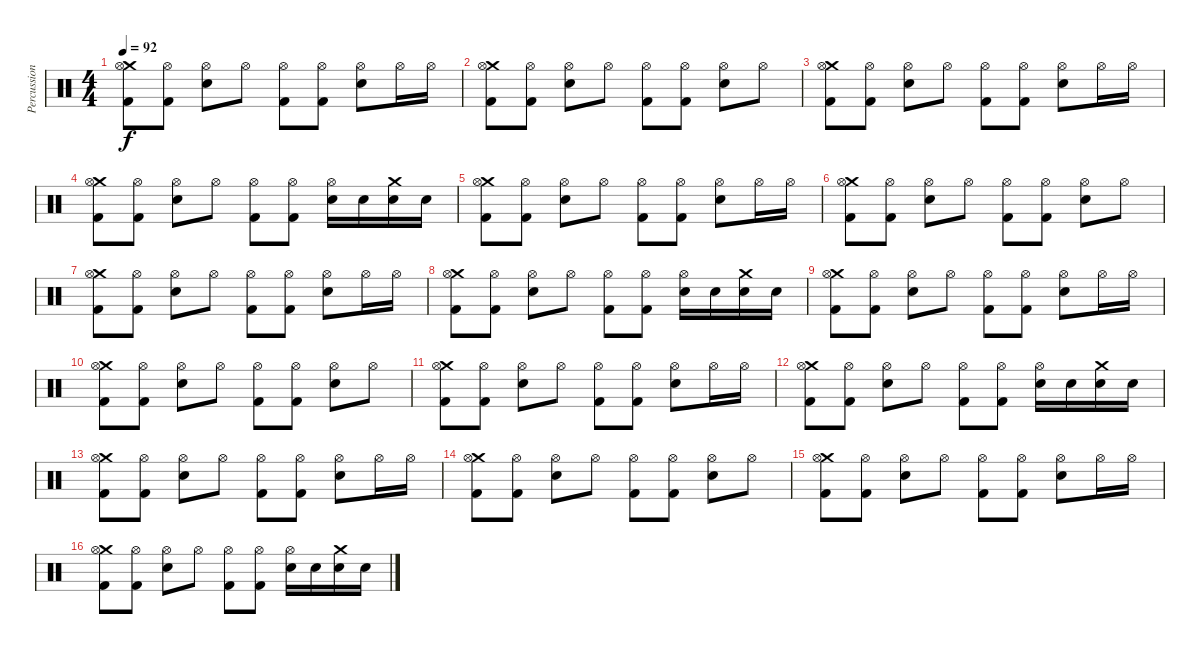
\track ("Percussion" "Percussion") {instrument percussion}
\staff {score}
\articulation defaults
\ts (4 4)
\tempo 92
\clef neutral
\ks c
("Crash medium (hit)" "Hi-Hat (open)" "Kick (hit) 2").8{dy f} ("Hi-Hat (open)" "Kick (hit) 2").8 ("Hi-Hat (open)" "Electric Snare (hit)").8 "Hi-Hat (open)".8 ("Hi-Hat (open)" "Kick (hit) 2").8 ("Hi-Hat (open)" "Kick (hit) 2").8 ("Hi-Hat (open)" "Electric Snare (hit)").8 "Hi-Hat (open)".16 "Hi-Hat (open)".16 |
("Crash medium (hit)" "Hi-Hat (open)" "Kick (hit) 2").8 ("Hi-Hat (open)" "Kick (hit) 2").8 ("Hi-Hat (open)" "Electric Snare (hit)").8 "Hi-Hat (open)".8 ("Hi-Hat (open)" "Kick (hit) 2").8 ("Hi-Hat (open)" "Kick (hit) 2").8 ("Hi-Hat (open)" "Electric Snare (hit)").8 "Hi-Hat (open)".8 |
("Crash medium (hit)" "Hi-Hat (open)" "Kick (hit) 2").8 ("Hi-Hat (open)" "Kick (hit) 2").8 ("Hi-Hat (open)" "Electric Snare (hit)").8 "Hi-Hat (open)".8 ("Hi-Hat (open)" "Kick (hit) 2").8 ("Hi-Hat (open)" "Kick (hit) 2").8 ("Hi-Hat (open)" "Electric Snare (hit)").8 "Hi-Hat (open)".16 "Hi-Hat (open)".16 |
("Crash medium (hit)" "Hi-Hat (open)" "Kick (hit) 2").8 ("Hi-Hat (open)" "Kick (hit) 2").8 ("Hi-Hat (open)" "Electric Snare (hit)").8 "Hi-Hat (open)".8 ("Hi-Hat (open)" "Kick (hit) 2").8 ("Hi-Hat (open)" "Kick (hit) 2").8 ("Hi-Hat (open)" "Electric Snare (hit)").16 "Electric Snare (hit)".16 ("Crash medium (hit)" "Electric Snare (hit)").16 "Electric Snare (hit)".16 |
("Crash medium (hit)" "Hi-Hat (open)" "Kick (hit) 2").8 ("Hi-Hat (open)" "Kick (hit) 2").8 ("Hi-Hat (open)" "Electric Snare (hit)").8 "Hi-Hat (open)".8 ("Hi-Hat (open)" "Kick (hit) 2").8 ("Hi-Hat (open)" "Kick (hit) 2").8 ("Hi-Hat (open)" "Electric Snare (hit)").8 "Hi-Hat (open)".16 "Hi-Hat (open)".16 |
("Crash medium (hit)" "Hi-Hat (open)" "Kick (hit) 2").8 ("Hi-Hat (open)" "Kick (hit) 2").8 ("Hi-Hat (open)" "Electric Snare (hit)").8 "Hi-Hat (open)".8 ("Hi-Hat (open)" "Kick (hit) 2").8 ("Hi-Hat (open)" "Kick (hit) 2").8 ("Hi-Hat (open)" "Electric Snare (hit)").8 "Hi-Hat (open)".8 |
("Crash medium (hit)" "Hi-Hat (open)" "Kick (hit) 2").8 ("Hi-Hat (open)" "Kick (hit) 2").8 ("Hi-Hat (open)" "Electric Snare (hit)").8 "Hi-Hat (open)".8 ("Hi-Hat (open)" "Kick (hit) 2").8 ("Hi-Hat (open)" "Kick (hit) 2").8 ("Hi-Hat (open)" "Electric Snare (hit)").8 "Hi-Hat (open)".16 "Hi-Hat (open)".16 |
("Crash medium (hit)" "Hi-Hat (open)" "Kick (hit) 2").8 ("Hi-Hat (open)" "Kick (hit) 2").8 ("Hi-Hat (open)" "Electric Snare (hit)").8 "Hi-Hat (open)".8 ("Hi-Hat (open)" "Kick (hit) 2").8 ("Hi-Hat (open)" "Kick (hit) 2").8 ("Hi-Hat (open)" "Electric Snare (hit)").16 "Electric Snare (hit)".16 ("Crash medium (hit)" "Electric Snare (hit)").16 "Electric Snare (hit)".16 |
("Crash medium (hit)" "Hi-Hat (open)" "Kick (hit) 2").8 ("Hi-Hat (open)" "Kick (hit) 2").8 ("Hi-Hat (open)" "Electric Snare (hit)").8 "Hi-Hat (open)".8 ("Hi-Hat (open)" "Kick (hit) 2").8 ("Hi-Hat (open)" "Kick (hit) 2").8 ("Hi-Hat (open)" "Electric Snare (hit)").8 "Hi-Hat (open)".16 "Hi-Hat (open)".16 |
("Crash medium (hit)" "Hi-Hat (open)" "Kick (hit) 2").8 ("Hi-Hat (open)" "Kick (hit) 2").8 ("Hi-Hat (open)" "Electric Snare (hit)").8 "Hi-Hat (open)".8 ("Hi-Hat (open)" "Kick (hit) 2").8 ("Hi-Hat (open)" "Kick (hit) 2").8 ("Hi-Hat (open)" "Electric Snare (hit)").8 "Hi-Hat (open)".8 |
("Crash medium (hit)" "Hi-Hat (open)" "Kick (hit) 2").8 ("Hi-Hat (open)" "Kick (hit) 2").8 ("Hi-Hat (open)" "Electric Snare (hit)").8 "Hi-Hat (open)".8 ("Hi-Hat (open)" "Kick (hit) 2").8 ("Hi-Hat (open)" "Kick (hit) 2").8 ("Hi-Hat (open)" "Electric Snare (hit)").8 "Hi-Hat (open)".16 "Hi-Hat (open)".16 |
("Crash medium (hit)" "Hi-Hat (open)" "Kick (hit) 2").8 ("Hi-Hat (open)" "Kick (hit) 2").8 ("Hi-Hat (open)" "Electric Snare (hit)").8 "Hi-Hat (open)".8 ("Hi-Hat (open)" "Kick (hit) 2").8 ("Hi-Hat (open)" "Kick (hit) 2").8 ("Hi-Hat (open)" "Electric Snare (hit)").16 "Electric Snare (hit)".16 ("Crash medium (hit)" "Electric Snare (hit)").16 "Electric Snare (hit)".16 |
("Crash medium (hit)" "Hi-Hat (open)" "Kick (hit) 2").8 ("Hi-Hat (open)" "Kick (hit) 2").8 ("Hi-Hat (open)" "Electric Snare (hit)").8 "Hi-Hat (open)".8 ("Hi-Hat (open)" "Kick (hit) 2").8 ("Hi-Hat (open)" "Kick (hit) 2").8 ("Hi-Hat (open)" "Electric Snare (hit)").8 "Hi-Hat (open)".16 "Hi-Hat (open)".16 |
("Crash medium (hit)" "Hi-Hat (open)" "Kick (hit) 2").8 ("Hi-Hat (open)" "Kick (hit) 2").8 ("Hi-Hat (open)" "Electric Snare (hit)").8 "Hi-Hat (open)".8 ("Hi-Hat (open)" "Kick (hit) 2").8 ("Hi-Hat (open)" "Kick (hit) 2").8 ("Hi-Hat (open)" "Electric Snare (hit)").8 "Hi-Hat (open)".8 |
("Crash medium (hit)" "Hi-Hat (open)" "Kick (hit) 2").8 ("Hi-Hat (open)" "Kick (hit) 2").8 ("Hi-Hat (open)" "Electric Snare (hit)").8 "Hi-Hat (open)".8 ("Hi-Hat (open)" "Kick (hit) 2").8 ("Hi-Hat (open)" "Kick (hit) 2").8 ("Hi-Hat (open)" "Electric Snare (hit)").8 "Hi-Hat (open)".16 "Hi-Hat (open)".16 |
("Crash medium (hit)" "Hi-Hat (open)" "Kick (hit) 2").8 ("Hi-Hat (open)" "Kick (hit) 2").8 ("Hi-Hat (open)" "Electric Snare (hit)").8 "Hi-Hat (open)".8 ("Hi-Hat (open)" "Kick (hit) 2").8 ("Hi-Hat (open)" "Kick (hit) 2").8 ("Hi-Hat (open)" "Electric Snare (hit)").16 "Electric Snare (hit)".16 ("Crash medium (hit)" "Electric Snare (hit)").16 "Electric Snare (hit)".16
